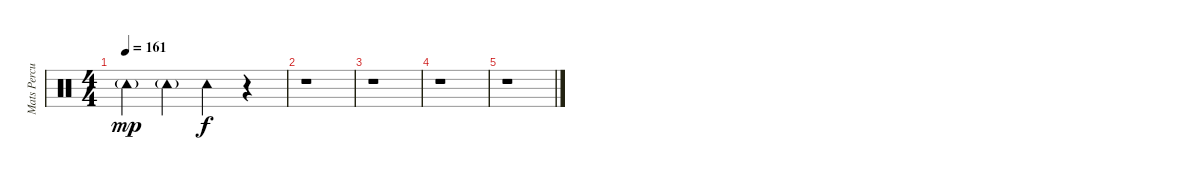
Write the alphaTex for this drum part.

\track ("Mats Percussion" "Mats Percu") {instrument percussion}
\staff {score}
\articulation defaults
\ts (4 4)
\tempo 161
\clef neutral
\ks c "Tambourine (hit)"{g}.4{dy mp} "Tambourine (hit)"{g}.4 "Tambourine (hit)".4{dy f}
r.4 |
r.1 |
r.1 |
r.1 |
r.1
